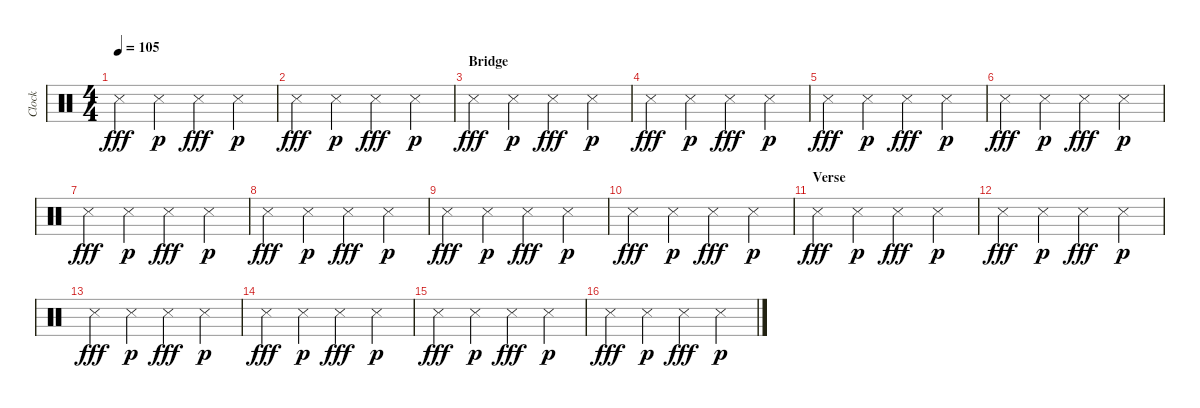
\track ("Clock" "Clock") {instrument percussion}
\staff {score}
\articulation defaults
\ts (4 4)
\tempo 105
\clef neutral
\ks c "Metronome (hit)".4{dy fff} "Metronome (hit)".4{dy p} "Metronome (hit)".4{dy fff} "Metronome (hit)".4{dy p}
|
"Metronome (hit)".4{dy fff} "Metronome (hit)".4{dy p} "Metronome (hit)".4{dy fff} "Metronome (hit)".4{dy p} |
\section ("" "Bridge")
"Metronome (hit)".4{dy fff} "Metronome (hit)".4{dy p} "Metronome (hit)".4{dy fff} "Metronome (hit)".4{dy p} |
"Metronome (hit)".4{dy fff} "Metronome (hit)".4{dy p} "Metronome (hit)".4{dy fff} "Metronome (hit)".4{dy p} |
"Metronome (hit)".4{dy fff} "Metronome (hit)".4{dy p} "Metronome (hit)".4{dy fff} "Metronome (hit)".4{dy p} |
"Metronome (hit)".4{dy fff} "Metronome (hit)".4{dy p} "Metronome (hit)".4{dy fff} "Metronome (hit)".4{dy p} |
"Metronome (hit)".4{dy fff} "Metronome (hit)".4{dy p} "Metronome (hit)".4{dy fff} "Metronome (hit)".4{dy p} |
"Metronome (hit)".4{dy fff} "Metronome (hit)".4{dy p} "Metronome (hit)".4{dy fff} "Metronome (hit)".4{dy p} |
"Metronome (hit)".4{dy fff} "Metronome (hit)".4{dy p} "Metronome (hit)".4{dy fff} "Metronome (hit)".4{dy p} |
"Metronome (hit)".4{dy fff} "Metronome (hit)".4{dy p} "Metronome (hit)".4{dy fff} "Metronome (hit)".4{dy p} |
\section ("" "Verse")
"Metronome (hit)".4{dy fff} "Metronome (hit)".4{dy p} "Metronome (hit)".4{dy fff} "Metronome (hit)".4{dy p} |
"Metronome (hit)".4{dy fff} "Metronome (hit)".4{dy p} "Metronome (hit)".4{dy fff} "Metronome (hit)".4{dy p} |
"Metronome (hit)".4{dy fff} "Metronome (hit)".4{dy p} "Metronome (hit)".4{dy fff} "Metronome (hit)".4{dy p} |
"Metronome (hit)".4{dy fff} "Metronome (hit)".4{dy p} "Metronome (hit)".4{dy fff} "Metronome (hit)".4{dy p} |
"Metronome (hit)".4{dy fff} "Metronome (hit)".4{dy p} "Metronome (hit)".4{dy fff} "Metronome (hit)".4{dy p} |
"Metronome (hit)".4{dy fff} "Metronome (hit)".4{dy p} "Metronome (hit)".4{dy fff} "Metronome (hit)".4{dy p}
